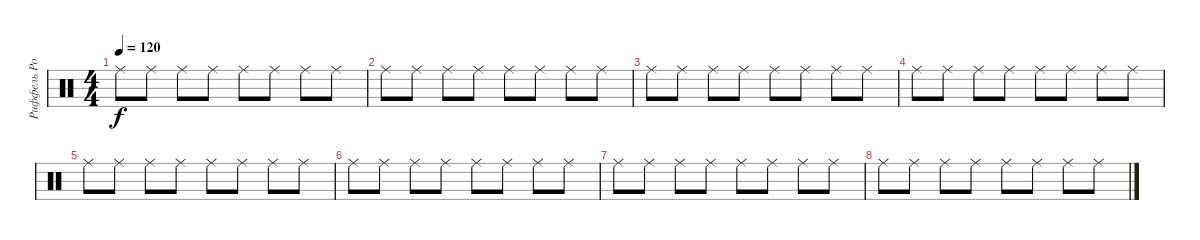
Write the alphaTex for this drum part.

\track ("Риффель Роман (хэты)" "Риффель Ро") {instrument percussion}
\staff {score}
\articulation defaults
\ts (4 4)
\tempo 120
\clef neutral
\ks c "Ride (middle)".8{dy f} "Ride (middle)".8 "Ride (middle)".8 "Ride (middle)".8 "Ride (middle)".8 "Ride (middle)".8 "Ride (middle)".8 "Ride (middle)".8
|
"Ride (middle)".8 "Ride (middle)".8 "Ride (middle)".8 "Ride (middle)".8 "Ride (middle)".8 "Ride (middle)".8 "Ride (middle)".8 "Ride (middle)".8 |
"Ride (middle)".8 "Ride (middle)".8 "Ride (middle)".8 "Ride (middle)".8 "Ride (middle)".8 "Ride (middle)".8 "Ride (middle)".8 "Ride (middle)".8 |
"Ride (middle)".8 "Ride (middle)".8 "Ride (middle)".8 "Ride (middle)".8 "Ride (middle)".8 "Ride (middle)".8 "Ride (middle)".8 "Ride (middle)".8 |
"Ride (middle)".8 "Ride (middle)".8 "Ride (middle)".8 "Ride (middle)".8 "Ride (middle)".8 "Ride (middle)".8 "Ride (middle)".8 "Ride (middle)".8 |
"Ride (middle)".8 "Ride (middle)".8 "Ride (middle)".8 "Ride (middle)".8 "Ride (middle)".8 "Ride (middle)".8 "Ride (middle)".8 "Ride (middle)".8 |
"Ride (middle)".8 "Ride (middle)".8 "Ride (middle)".8 "Ride (middle)".8 "Ride (middle)".8 "Ride (middle)".8 "Ride (middle)".8 "Ride (middle)".8 |
"Ride (middle)".8 "Ride (middle)".8 "Ride (middle)".8 "Ride (middle)".8 "Ride (middle)".8 "Ride (middle)".8 "Ride (middle)".8 "Ride (middle)".8
